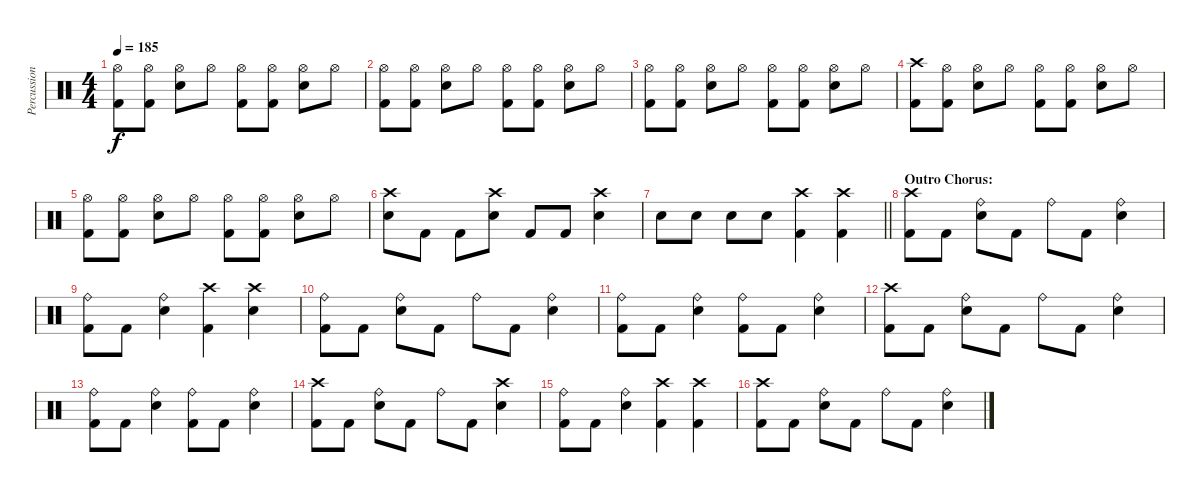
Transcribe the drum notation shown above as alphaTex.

\track ("Percussion" "Percussion") {instrument percussion}
\staff {score}
\articulation defaults
\ts (4 4)
\tempo 185
\clef neutral
\ks c
("Hi-Hat (open)" "Kick (hit) 2").8{dy f} ("Hi-Hat (open)" "Kick (hit) 2").8 ("Hi-Hat (open)" "Snare (hit) 2").8 "Hi-Hat (open)".8 ("Hi-Hat (open)" "Kick (hit) 2").8 ("Hi-Hat (open)" "Kick (hit) 2").8 ("Hi-Hat (open)" "Snare (hit) 2").8 "Hi-Hat (open)".8 |
("Hi-Hat (open)" "Kick (hit) 2").8 ("Hi-Hat (open)" "Kick (hit) 2").8 ("Hi-Hat (open)" "Snare (hit) 2").8 "Hi-Hat (open)".8 ("Hi-Hat (open)" "Kick (hit) 2").8 ("Hi-Hat (open)" "Kick (hit) 2").8 ("Hi-Hat (open)" "Snare (hit) 2").8 "Hi-Hat (open)".8 |
("Hi-Hat (open)" "Kick (hit) 2").8 ("Hi-Hat (open)" "Kick (hit) 2").8 ("Hi-Hat (open)" "Snare (hit) 2").8 "Hi-Hat (open)".8 ("Hi-Hat (open)" "Kick (hit) 2").8 ("Hi-Hat (open)" "Kick (hit) 2").8 ("Hi-Hat (open)" "Snare (hit) 2").8 "Hi-Hat (open)".8 |
("Crash high (hit)" "Kick (hit) 2").8 ("Hi-Hat (open)" "Kick (hit) 2").8 ("Hi-Hat (open)" "Snare (hit) 2").8 "Hi-Hat (open)".8 ("Hi-Hat (open)" "Kick (hit) 2").8 ("Hi-Hat (open)" "Kick (hit) 2").8 ("Hi-Hat (open)" "Snare (hit) 2").8 "Hi-Hat (open)".8 |
("Hi-Hat (open)" "Kick (hit) 2").8 ("Hi-Hat (open)" "Kick (hit) 2").8 ("Hi-Hat (open)" "Snare (hit) 2").8 "Hi-Hat (open)".8 ("Hi-Hat (open)" "Kick (hit) 2").8 ("Hi-Hat (open)" "Kick (hit) 2").8 ("Hi-Hat (open)" "Snare (hit) 2").8 "Hi-Hat (open)".8 |
("Crash high (hit)" "Snare (hit) 2").8 "Kick (hit) 2".8 "Kick (hit) 2".8 ("Crash high (hit)" "Snare (hit) 2").8 "Kick (hit) 2".8 "Kick (hit) 2".8 ("Crash high (hit)" "Snare (hit) 2").4 |
\barLineRight lightlight "Snare (hit) 2".8 "Snare (hit) 2".8 "Snare (hit) 2".8 "Snare (hit) 2".8
("Crash high (hit)" "Kick (hit) 2").4 ("Crash high (hit)" "Kick (hit) 2").4 |
\section ("" "Outro Chorus:")
("Crash high (hit)" "Kick (hit) 2").8 "Kick (hit) 2".8 ("Ride (bell)" "Snare (hit) 2").8 "Kick (hit) 2".8 "Ride (bell)".8 "Kick (hit) 2".8 ("Ride (bell)" "Snare (hit) 2").4 |
("Ride (bell)" "Kick (hit) 2").8 "Kick (hit) 2".8 ("Ride (bell)" "Snare (hit) 2").4 ("Crash high (hit)" "Kick (hit) 2").4 ("Crash high (hit)" "Snare (hit) 2").4 |
("Ride (bell)" "Kick (hit) 2").8 "Kick (hit) 2".8 ("Ride (bell)" "Snare (hit) 2").8 "Kick (hit) 2".8 "Ride (bell)".8 "Kick (hit) 2".8 ("Ride (bell)" "Snare (hit) 2").4 |
("Ride (bell)" "Kick (hit) 2").8 "Kick (hit) 2".8 ("Ride (bell)" "Snare (hit) 2").4 ("Ride (bell)" "Kick (hit) 2").8 "Kick (hit) 2".8 ("Ride (bell)" "Snare (hit) 2").4 |
("Crash high (hit)" "Kick (hit) 2").8 "Kick (hit) 2".8 ("Ride (bell)" "Snare (hit) 2").8 "Kick (hit) 2".8 "Ride (bell)".8 "Kick (hit) 2".8 ("Ride (bell)" "Snare (hit) 2").4 |
("Ride (bell)" "Kick (hit) 2").8 "Kick (hit) 2".8 ("Ride (bell)" "Snare (hit) 2").4 ("Ride (bell)" "Kick (hit) 2").8 "Kick (hit) 2".8 ("Ride (bell)" "Snare (hit) 2").4 |
("Crash high (hit)" "Kick (hit) 2").8 "Kick (hit) 2".8 ("Ride (bell)" "Snare (hit) 2").8 "Kick (hit) 2".8 "Ride (bell)".8 "Kick (hit) 2".8 ("Crash high (hit)" "Snare (hit) 2").4 |
("Ride (bell)" "Kick (hit) 2").8 "Kick (hit) 2".8 ("Ride (bell)" "Snare (hit) 2").4 ("Crash high (hit)" "Kick (hit) 2").4 ("Crash high (hit)" "Kick (hit) 2").4 |
("Crash high (hit)" "Kick (hit) 2").8 "Kick (hit) 2".8 ("Ride (bell)" "Snare (hit) 2").8 "Kick (hit) 2".8 "Ride (bell)".8 "Kick (hit) 2".8 ("Ride (bell)" "Snare (hit) 2").4
